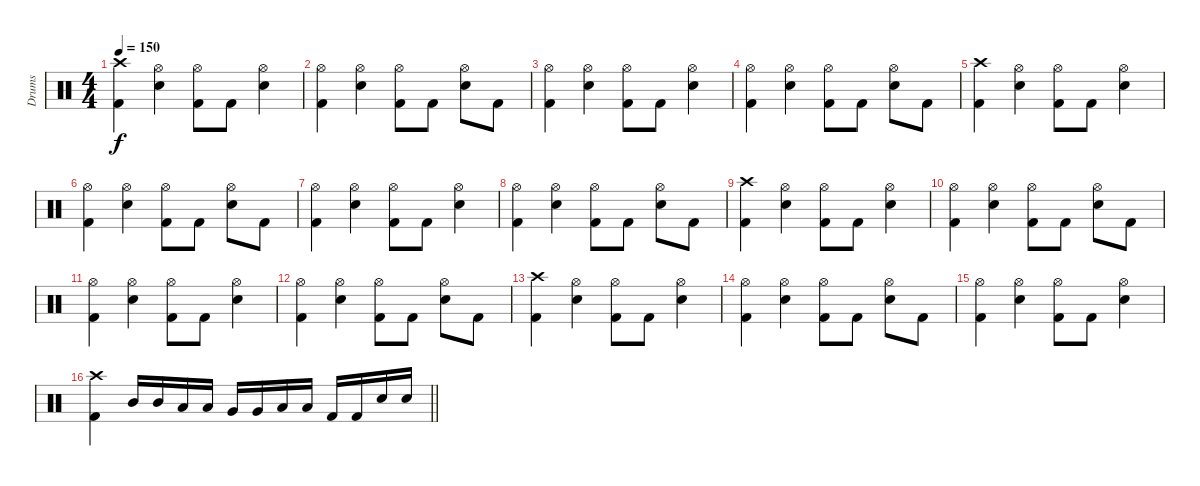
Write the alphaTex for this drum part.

\track ("Drums" "Drums") {instrument percussion}
\staff {score}
\articulation defaults
\ts (4 4)
\tempo 150
\clef neutral
\ks c
("Crash high (hit)" "Kick (hit) 2").4{dy f} ("Hi-Hat (open)" "Electric Snare (hit)").4 ("Hi-Hat (open)" "Kick (hit) 2").8 "Kick (hit) 2".8 ("Hi-Hat (open)" "Electric Snare (hit)").4 |
("Hi-Hat (open)" "Kick (hit) 2").4 ("Hi-Hat (open)" "Electric Snare (hit)").4 ("Hi-Hat (open)" "Kick (hit) 2").8 "Kick (hit) 2".8 ("Hi-Hat (open)" "Electric Snare (hit)").8 "Kick (hit) 2".8 |
("Hi-Hat (open)" "Kick (hit) 2").4 ("Hi-Hat (open)" "Electric Snare (hit)").4 ("Hi-Hat (open)" "Kick (hit) 2").8 "Kick (hit) 2".8 ("Hi-Hat (open)" "Electric Snare (hit)").4 |
("Hi-Hat (open)" "Kick (hit) 2").4 ("Hi-Hat (open)" "Electric Snare (hit)").4 ("Hi-Hat (open)" "Kick (hit) 2").8 "Kick (hit) 2".8 ("Hi-Hat (open)" "Electric Snare (hit)").8 "Kick (hit) 2".8 |
("Crash high (hit)" "Kick (hit) 2").4 ("Hi-Hat (open)" "Electric Snare (hit)").4 ("Hi-Hat (open)" "Kick (hit) 2").8 "Kick (hit) 2".8 ("Hi-Hat (open)" "Electric Snare (hit)").4 |
("Hi-Hat (open)" "Kick (hit) 2").4 ("Hi-Hat (open)" "Electric Snare (hit)").4 ("Hi-Hat (open)" "Kick (hit) 2").8 "Kick (hit) 2".8 ("Hi-Hat (open)" "Electric Snare (hit)").8 "Kick (hit) 2".8 |
("Hi-Hat (open)" "Kick (hit) 2").4 ("Hi-Hat (open)" "Electric Snare (hit)").4 ("Hi-Hat (open)" "Kick (hit) 2").8 "Kick (hit) 2".8 ("Hi-Hat (open)" "Electric Snare (hit)").4 |
("Hi-Hat (open)" "Kick (hit) 2").4 ("Hi-Hat (open)" "Electric Snare (hit)").4 ("Hi-Hat (open)" "Kick (hit) 2").8 "Kick (hit) 2".8 ("Hi-Hat (open)" "Electric Snare (hit)").8 "Kick (hit) 2".8 |
("Crash high (hit)" "Kick (hit) 2").4 ("Hi-Hat (open)" "Electric Snare (hit)").4 ("Hi-Hat (open)" "Kick (hit) 2").8 "Kick (hit) 2".8 ("Hi-Hat (open)" "Electric Snare (hit)").4 |
("Hi-Hat (open)" "Kick (hit) 2").4 ("Hi-Hat (open)" "Electric Snare (hit)").4 ("Hi-Hat (open)" "Kick (hit) 2").8 "Kick (hit) 2".8 ("Hi-Hat (open)" "Electric Snare (hit)").8 "Kick (hit) 2".8 |
("Hi-Hat (open)" "Kick (hit) 2").4 ("Hi-Hat (open)" "Electric Snare (hit)").4 ("Hi-Hat (open)" "Kick (hit) 2").8 "Kick (hit) 2".8 ("Hi-Hat (open)" "Electric Snare (hit)").4 |
("Hi-Hat (open)" "Kick (hit) 2").4 ("Hi-Hat (open)" "Electric Snare (hit)").4 ("Hi-Hat (open)" "Kick (hit) 2").8 "Kick (hit) 2".8 ("Hi-Hat (open)" "Electric Snare (hit)").8 "Kick (hit) 2".8 |
("Crash high (hit)" "Kick (hit) 2").4 ("Hi-Hat (open)" "Electric Snare (hit)").4 ("Hi-Hat (open)" "Kick (hit) 2").8 "Kick (hit) 2".8 ("Hi-Hat (open)" "Electric Snare (hit)").4 |
("Hi-Hat (open)" "Kick (hit) 2").4 ("Hi-Hat (open)" "Electric Snare (hit)").4 ("Hi-Hat (open)" "Kick (hit) 2").8 "Kick (hit) 2".8 ("Hi-Hat (open)" "Electric Snare (hit)").8 "Kick (hit) 2".8 |
("Hi-Hat (open)" "Kick (hit) 2").4 ("Hi-Hat (open)" "Electric Snare (hit)").4 ("Hi-Hat (open)" "Kick (hit) 2").8 "Kick (hit) 2".8 ("Hi-Hat (open)" "Electric Snare (hit)").4 |
\barLineRight lightlight
("Crash high (hit)" "Kick (hit) 2").4 "Mid Tom (hit)".16 "Mid Tom (hit)".16 "Low Tom (hit)".16 "Low Tom (hit)".16 "Very Low Tom (hit)".16 "Very Low Tom (hit)".16 "Low Floor Tom (hit)".16 "Low Floor Tom (hit)".16 "Kick (hit) 2".16 "Kick (hit) 2".16 "Electric Snare (hit)".16 "Electric Snare (hit)".16
